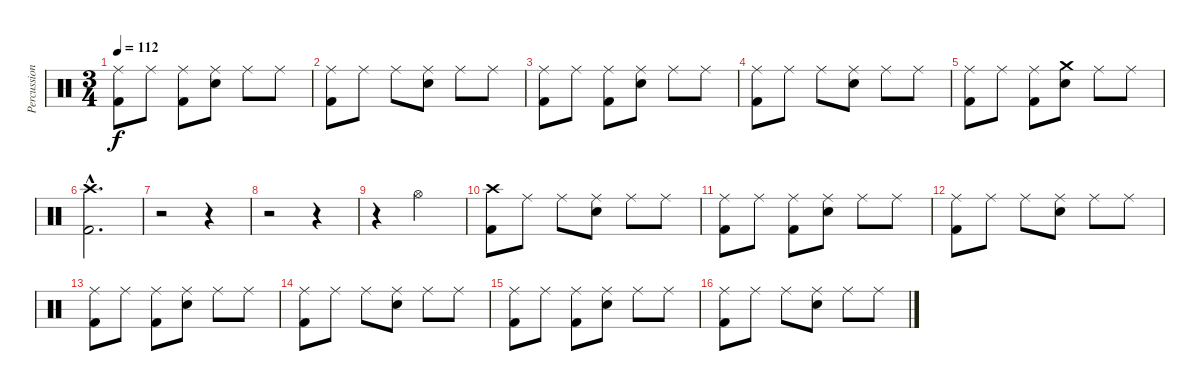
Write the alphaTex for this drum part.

\track ("Percussion" "Percussion") {instrument percussion}
\staff {score}
\articulation defaults
\ts (3 4)
\tempo 112
\clef neutral
\ks c
("Ride (middle)" "Kick (hit) 2").8{dy f} "Ride (middle)".8 ("Ride (middle)" "Kick (hit) 2").8 ("Ride (middle)" "Snare (hit) 2").8 "Ride (middle)".8 "Ride (middle)".8 |
("Ride (middle)" "Kick (hit) 2").8 "Ride (middle)".8 "Ride (middle)".8 ("Ride (middle)" "Snare (hit) 2").8 "Ride (middle)".8 "Ride (middle)".8 |
("Ride (middle)" "Kick (hit) 2").8 "Ride (middle)".8 ("Ride (middle)" "Kick (hit) 2").8 ("Ride (middle)" "Snare (hit) 2").8 "Ride (middle)".8 "Ride (middle)".8 |
("Ride (middle)" "Kick (hit) 2").8 "Ride (middle)".8 "Ride (middle)".8 ("Ride (middle)" "Snare (hit) 2").8 "Ride (middle)".8 "Ride (middle)".8 |
("Ride (middle)" "Kick (hit) 2").8 "Ride (middle)".8 ("Ride (middle)" "Kick (hit) 2").8 ("Crash medium (hit)" "Snare (hit) 2").8 "Ride (middle)".8 "Ride (middle)".8 |
("Crash high (hit)"{hac} "Kick (hit) 2"{hac}).2{d} |
r.2 r.4 |
r.2 r.4 |
r.4 "Hi-Hat (open)".2 |
("Crash high (hit)" "Kick (hit) 2").8 "Ride (middle)".8 "Ride (middle)".8 ("Ride (middle)" "Snare (hit) 2").8 "Ride (middle)".8 "Ride (middle)".8 |
("Ride (middle)" "Kick (hit) 2").8 "Ride (middle)".8 ("Ride (middle)" "Kick (hit) 2").8 ("Ride (middle)" "Snare (hit) 2").8 "Ride (middle)".8 "Ride (middle)".8 |
("Ride (middle)" "Kick (hit) 2").8 "Ride (middle)".8 "Ride (middle)".8 ("Ride (middle)" "Snare (hit) 2").8 "Ride (middle)".8 "Ride (middle)".8 |
("Ride (middle)" "Kick (hit) 2").8 "Ride (middle)".8 ("Ride (middle)" "Kick (hit) 2").8 ("Ride (middle)" "Snare (hit) 2").8 "Ride (middle)".8 "Ride (middle)".8 |
("Ride (middle)" "Kick (hit) 2").8 "Ride (middle)".8 "Ride (middle)".8 ("Ride (middle)" "Snare (hit) 2").8 "Ride (middle)".8 "Ride (middle)".8 |
("Ride (middle)" "Kick (hit) 2").8 "Ride (middle)".8 ("Ride (middle)" "Kick (hit) 2").8 ("Ride (middle)" "Snare (hit) 2").8 "Ride (middle)".8 "Ride (middle)".8 |
("Ride (middle)" "Kick (hit) 2").8 "Ride (middle)".8 "Ride (middle)".8 ("Ride (middle)" "Snare (hit) 2").8 "Ride (middle)".8 "Ride (middle)".8
